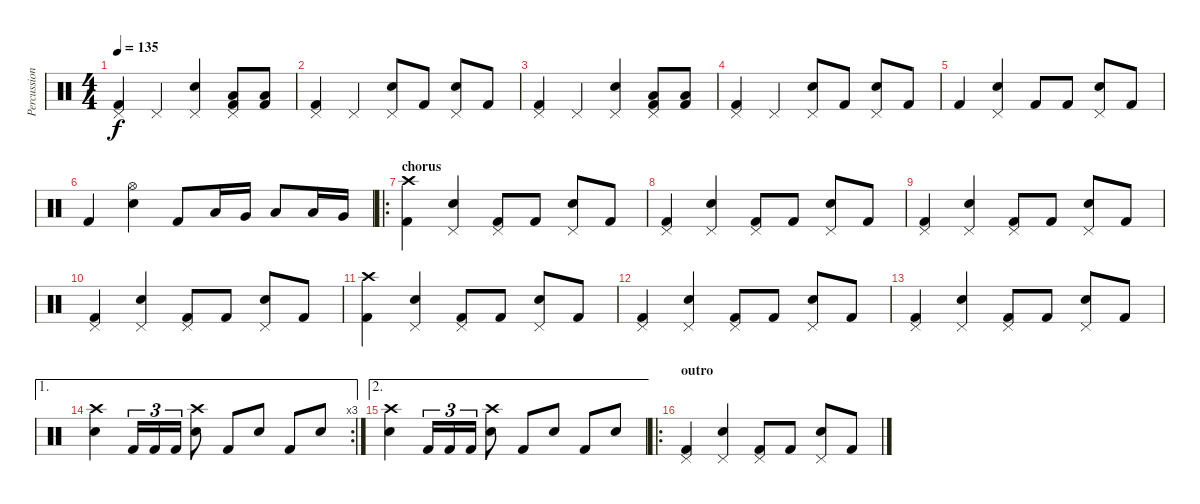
\track ("Percussion" "Percussion") {instrument percussion}
\staff {score}
\articulation defaults
\ts (4 4)
\tempo 135
\clef neutral
\ks c
("Pedal Hi-Hat (hit)" "Kick (hit) 2").4{dy f} "Pedal Hi-Hat (hit)".4 ("Pedal Hi-Hat (hit)" "Electric Snare (hit)").4 ("Pedal Hi-Hat (hit)" "Low Tom (hit)" "Kick (hit) 2").8 ("Low Floor Tom (hit)" "Kick (hit) 2").8 |
("Pedal Hi-Hat (hit)" "Kick (hit) 2").4 "Pedal Hi-Hat (hit)".4 ("Pedal Hi-Hat (hit)" "Electric Snare (hit)").8 "Kick (hit) 2".8 ("Pedal Hi-Hat (hit)" "Electric Snare (hit)").8 "Kick (hit) 2".8 |
("Pedal Hi-Hat (hit)" "Kick (hit) 2").4 "Pedal Hi-Hat (hit)".4 ("Pedal Hi-Hat (hit)" "Electric Snare (hit)").4 ("Pedal Hi-Hat (hit)" "Low Tom (hit)" "Kick (hit) 2").8 ("Low Floor Tom (hit)" "Kick (hit) 2").8 |
("Pedal Hi-Hat (hit)" "Kick (hit) 2").4 "Pedal Hi-Hat (hit)".4 ("Pedal Hi-Hat (hit)" "Electric Snare (hit)").8 "Kick (hit) 2".8 ("Pedal Hi-Hat (hit)" "Electric Snare (hit)").8 "Kick (hit) 2".8 |
"Kick (hit) 2".4 ("Pedal Hi-Hat (hit)" "Electric Snare (hit)").4 "Kick (hit) 2".8 "Kick (hit) 2".8 ("Pedal Hi-Hat (hit)" "Electric Snare (hit)").8 "Kick (hit) 2".8 |
"Kick (hit) 2".4 ("Hi-Hat (open)" "Electric Snare (hit)").4 "Kick (hit) 2".8 "Low Tom (hit)".16 "Very Low Tom (hit)".16 "Low Floor Tom (hit)".8 "Low Tom (hit)".16 "Very Low Tom (hit)".16 |
\ro
\section ("" "chorus")
("Crash high (hit)" "Kick (hit) 2").4 ("Pedal Hi-Hat (hit)" "Electric Snare (hit)").4 ("Pedal Hi-Hat (hit)" "Kick (hit) 2").8 "Kick (hit) 2".8 ("Pedal Hi-Hat (hit)" "Electric Snare (hit)").8 "Kick (hit) 2".8 |
("Pedal Hi-Hat (hit)" "Kick (hit) 2").4 ("Pedal Hi-Hat (hit)" "Electric Snare (hit)").4 ("Pedal Hi-Hat (hit)" "Kick (hit) 2").8 "Kick (hit) 2".8 ("Pedal Hi-Hat (hit)" "Electric Snare (hit)").8 "Kick (hit) 2".8 |
("Pedal Hi-Hat (hit)" "Kick (hit) 2").4 ("Pedal Hi-Hat (hit)" "Electric Snare (hit)").4 ("Pedal Hi-Hat (hit)" "Kick (hit) 2").8 "Kick (hit) 2".8 ("Pedal Hi-Hat (hit)" "Electric Snare (hit)").8 "Kick (hit) 2".8 |
("Pedal Hi-Hat (hit)" "Kick (hit) 2").4 ("Pedal Hi-Hat (hit)" "Electric Snare (hit)").4 ("Pedal Hi-Hat (hit)" "Kick (hit) 2").8 "Kick (hit) 2".8 ("Pedal Hi-Hat (hit)" "Electric Snare (hit)").8 "Kick (hit) 2".8 |
("Crash high (hit)" "Kick (hit) 2").4 ("Pedal Hi-Hat (hit)" "Electric Snare (hit)").4 ("Pedal Hi-Hat (hit)" "Kick (hit) 2").8 "Kick (hit) 2".8 ("Pedal Hi-Hat (hit)" "Electric Snare (hit)").8 "Kick (hit) 2".8 |
("Pedal Hi-Hat (hit)" "Kick (hit) 2").4 ("Pedal Hi-Hat (hit)" "Electric Snare (hit)").4 ("Pedal Hi-Hat (hit)" "Kick (hit) 2").8 "Kick (hit) 2".8 ("Pedal Hi-Hat (hit)" "Electric Snare (hit)").8 "Kick (hit) 2".8 |
("Pedal Hi-Hat (hit)" "Kick (hit) 2").4 ("Pedal Hi-Hat (hit)" "Electric Snare (hit)").4 ("Pedal Hi-Hat (hit)" "Kick (hit) 2").8 "Kick (hit) 2".8 ("Pedal Hi-Hat (hit)" "Electric Snare (hit)").8 "Kick (hit) 2".8 |
\ae 1
\rc 3
("Crash high (hit)" "Electric Snare (hit)").4 "Kick (hit) 2".16{tu (3 2)} "Kick (hit) 2".16{tu (3 2)} "Kick (hit) 2".16{tu (3 2)} ("Crash high (hit)" "Electric Snare (hit)").8 "Kick (hit) 2".8 "Electric Snare (hit)".8 "Kick (hit) 2".8 "Electric Snare (hit)".8 |
\ae 2
("Crash high (hit)" "Electric Snare (hit)").4 "Kick (hit) 2".16{tu (3 2)} "Kick (hit) 2".16{tu (3 2)} "Kick (hit) 2".16{tu (3 2)} ("Crash high (hit)" "Electric Snare (hit)").8 "Kick (hit) 2".8 "Electric Snare (hit)".8 "Kick (hit) 2".8 "Electric Snare (hit)".8 |
\ro
\section ("" "outro")
("Pedal Hi-Hat (hit)" "Kick (hit) 2").4 ("Pedal Hi-Hat (hit)" "Electric Snare (hit)").4 ("Pedal Hi-Hat (hit)" "Kick (hit) 2").8 "Kick (hit) 2".8 ("Pedal Hi-Hat (hit)" "Electric Snare (hit)").8 "Kick (hit) 2".8
